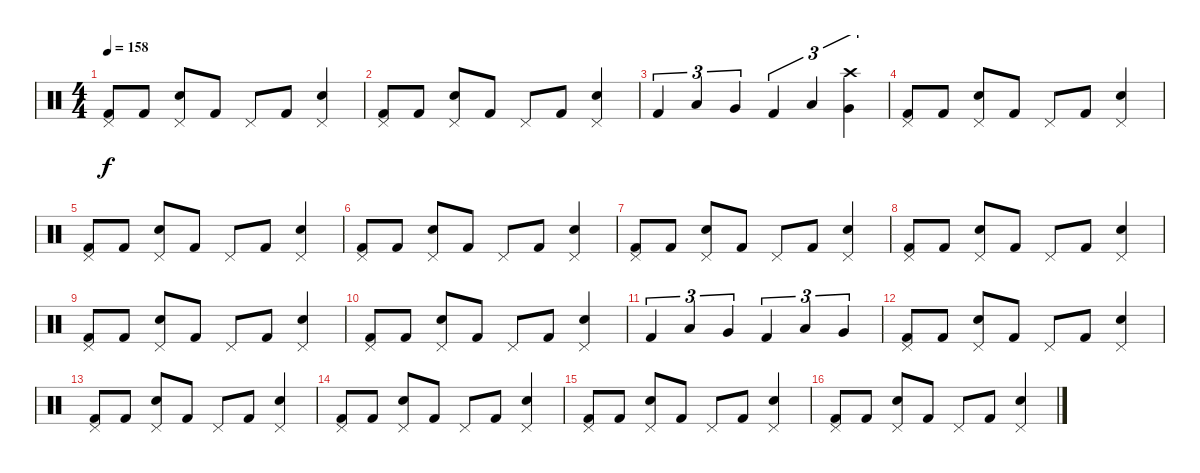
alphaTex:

\track "" {instrument percussion}
\staff {score}
\articulation defaults
\ts (4 4)
\tempo 158
\clef neutral
\ks c
("Pedal Hi-Hat (hit)" "Kick (hit) 2").8{dy f} "Kick (hit) 2".8 ("Pedal Hi-Hat (hit)" "Electric Snare (hit)").8 "Kick (hit) 2".8 "Pedal Hi-Hat (hit)".8 "Kick (hit) 2".8 ("Pedal Hi-Hat (hit)" "Electric Snare (hit)").4 |
("Pedal Hi-Hat (hit)" "Kick (hit) 2").8 "Kick (hit) 2".8 ("Pedal Hi-Hat (hit)" "Electric Snare (hit)").8 "Kick (hit) 2".8 "Pedal Hi-Hat (hit)".8 "Kick (hit) 2".8 ("Pedal Hi-Hat (hit)" "Electric Snare (hit)").4 |
"Kick (hit) 2".4{tu (3 2)} "Low Floor Tom (hit)".4{tu (3 2)} "Very Low Tom (hit)".4{tu (3 2)} "Kick (hit) 2".4{tu (3 2)} "Low Floor Tom (hit)".4{tu (3 2)} ("Crash high (hit)" "Very Low Tom (hit)").4{tu (3 2)} |
("Pedal Hi-Hat (hit)" "Kick (hit) 2").8 "Kick (hit) 2".8 ("Pedal Hi-Hat (hit)" "Electric Snare (hit)").8 "Kick (hit) 2".8 "Pedal Hi-Hat (hit)".8 "Kick (hit) 2".8 ("Pedal Hi-Hat (hit)" "Electric Snare (hit)").4 |
("Pedal Hi-Hat (hit)" "Kick (hit) 2").8 "Kick (hit) 2".8 ("Pedal Hi-Hat (hit)" "Electric Snare (hit)").8 "Kick (hit) 2".8 "Pedal Hi-Hat (hit)".8 "Kick (hit) 2".8 ("Pedal Hi-Hat (hit)" "Electric Snare (hit)").4 |
("Pedal Hi-Hat (hit)" "Kick (hit) 2").8 "Kick (hit) 2".8 ("Pedal Hi-Hat (hit)" "Electric Snare (hit)").8 "Kick (hit) 2".8 "Pedal Hi-Hat (hit)".8 "Kick (hit) 2".8 ("Pedal Hi-Hat (hit)" "Electric Snare (hit)").4 |
("Pedal Hi-Hat (hit)" "Kick (hit) 2").8 "Kick (hit) 2".8 ("Pedal Hi-Hat (hit)" "Electric Snare (hit)").8 "Kick (hit) 2".8 "Pedal Hi-Hat (hit)".8 "Kick (hit) 2".8 ("Pedal Hi-Hat (hit)" "Electric Snare (hit)").4 |
("Pedal Hi-Hat (hit)" "Kick (hit) 2").8 "Kick (hit) 2".8 ("Pedal Hi-Hat (hit)" "Electric Snare (hit)").8 "Kick (hit) 2".8 "Pedal Hi-Hat (hit)".8 "Kick (hit) 2".8 ("Pedal Hi-Hat (hit)" "Electric Snare (hit)").4 |
("Pedal Hi-Hat (hit)" "Kick (hit) 2").8 "Kick (hit) 2".8 ("Pedal Hi-Hat (hit)" "Electric Snare (hit)").8 "Kick (hit) 2".8 "Pedal Hi-Hat (hit)".8 "Kick (hit) 2".8 ("Pedal Hi-Hat (hit)" "Electric Snare (hit)").4 |
("Pedal Hi-Hat (hit)" "Kick (hit) 2").8 "Kick (hit) 2".8 ("Pedal Hi-Hat (hit)" "Electric Snare (hit)").8 "Kick (hit) 2".8 "Pedal Hi-Hat (hit)".8 "Kick (hit) 2".8 ("Pedal Hi-Hat (hit)" "Electric Snare (hit)").4 |
"Kick (hit) 2".4{tu (3 2)} "Low Floor Tom (hit)".4{tu (3 2)} "Very Low Tom (hit)".4{tu (3 2)} "Kick (hit) 2".4{tu (3 2)} "Low Floor Tom (hit)".4{tu (3 2)} "Very Low Tom (hit)".4{tu (3 2)} |
("Pedal Hi-Hat (hit)" "Kick (hit) 2").8 "Kick (hit) 2".8 ("Pedal Hi-Hat (hit)" "Electric Snare (hit)").8 "Kick (hit) 2".8 "Pedal Hi-Hat (hit)".8 "Kick (hit) 2".8 ("Pedal Hi-Hat (hit)" "Electric Snare (hit)").4 |
("Pedal Hi-Hat (hit)" "Kick (hit) 2").8 "Kick (hit) 2".8 ("Pedal Hi-Hat (hit)" "Electric Snare (hit)").8 "Kick (hit) 2".8 "Pedal Hi-Hat (hit)".8 "Kick (hit) 2".8 ("Pedal Hi-Hat (hit)" "Electric Snare (hit)").4 |
("Pedal Hi-Hat (hit)" "Kick (hit) 2").8 "Kick (hit) 2".8 ("Pedal Hi-Hat (hit)" "Electric Snare (hit)").8 "Kick (hit) 2".8 "Pedal Hi-Hat (hit)".8 "Kick (hit) 2".8 ("Pedal Hi-Hat (hit)" "Electric Snare (hit)").4 |
("Pedal Hi-Hat (hit)" "Kick (hit) 2").8 "Kick (hit) 2".8 ("Pedal Hi-Hat (hit)" "Electric Snare (hit)").8 "Kick (hit) 2".8 "Pedal Hi-Hat (hit)".8 "Kick (hit) 2".8 ("Pedal Hi-Hat (hit)" "Electric Snare (hit)").4 |
("Pedal Hi-Hat (hit)" "Kick (hit) 2").8 "Kick (hit) 2".8 ("Pedal Hi-Hat (hit)" "Electric Snare (hit)").8 "Kick (hit) 2".8 "Pedal Hi-Hat (hit)".8 "Kick (hit) 2".8 ("Pedal Hi-Hat (hit)" "Electric Snare (hit)").4
